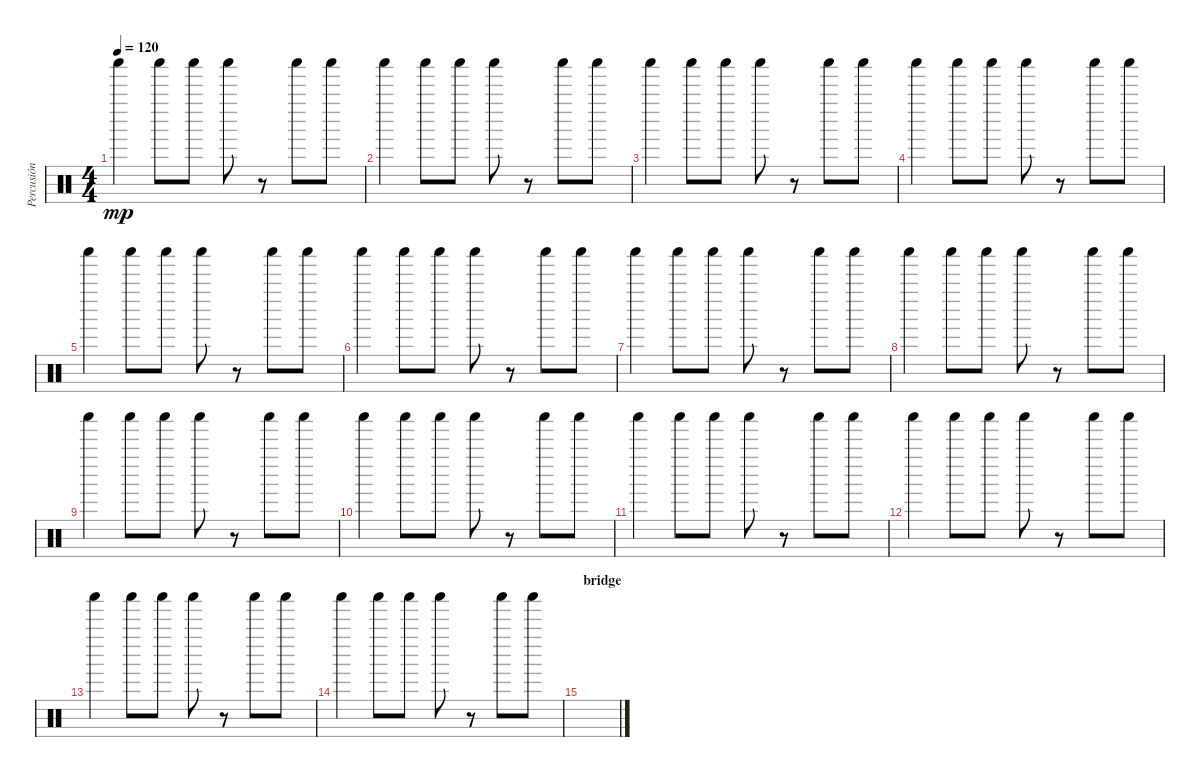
\track ("Percusión" "Percusión") {instrument percussion}
\staff {score}
\articulation defaults
\ts (4 4)
\tempo 120
\clef neutral
\ks c "Shaker (hit)".4{dy mp} "Shaker (hit)".8 "Shaker (hit)".8 "Shaker (hit)".8
r.8 "Shaker (hit)".8 "Shaker (hit)".8 |
"Shaker (hit)".4 "Shaker (hit)".8 "Shaker (hit)".8 "Shaker (hit)".8 r.8 "Shaker (hit)".8 "Shaker (hit)".8 |
"Shaker (hit)".4 "Shaker (hit)".8 "Shaker (hit)".8 "Shaker (hit)".8 r.8 "Shaker (hit)".8 "Shaker (hit)".8 |
"Shaker (hit)".4 "Shaker (hit)".8 "Shaker (hit)".8 "Shaker (hit)".8 r.8 "Shaker (hit)".8 "Shaker (hit)".8 |
"Shaker (hit)".4 "Shaker (hit)".8 "Shaker (hit)".8 "Shaker (hit)".8 r.8 "Shaker (hit)".8 "Shaker (hit)".8 |
"Shaker (hit)".4 "Shaker (hit)".8 "Shaker (hit)".8 "Shaker (hit)".8 r.8 "Shaker (hit)".8 "Shaker (hit)".8 |
"Shaker (hit)".4 "Shaker (hit)".8 "Shaker (hit)".8 "Shaker (hit)".8 r.8 "Shaker (hit)".8 "Shaker (hit)".8 |
"Shaker (hit)".4 "Shaker (hit)".8 "Shaker (hit)".8 "Shaker (hit)".8 r.8 "Shaker (hit)".8 "Shaker (hit)".8 |
"Shaker (hit)".4 "Shaker (hit)".8 "Shaker (hit)".8 "Shaker (hit)".8 r.8 "Shaker (hit)".8 "Shaker (hit)".8 |
"Shaker (hit)".4 "Shaker (hit)".8 "Shaker (hit)".8 "Shaker (hit)".8 r.8 "Shaker (hit)".8 "Shaker (hit)".8 |
"Shaker (hit)".4 "Shaker (hit)".8 "Shaker (hit)".8 "Shaker (hit)".8 r.8 "Shaker (hit)".8 "Shaker (hit)".8 |
"Shaker (hit)".4 "Shaker (hit)".8 "Shaker (hit)".8 "Shaker (hit)".8 r.8 "Shaker (hit)".8 "Shaker (hit)".8 |
"Shaker (hit)".4 "Shaker (hit)".8 "Shaker (hit)".8 "Shaker (hit)".8 r.8 "Shaker (hit)".8 "Shaker (hit)".8 |
"Shaker (hit)".4 "Shaker (hit)".8 "Shaker (hit)".8 "Shaker (hit)".8 r.8 "Shaker (hit)".8 "Shaker (hit)".8 |
\section ("" "bridge")
